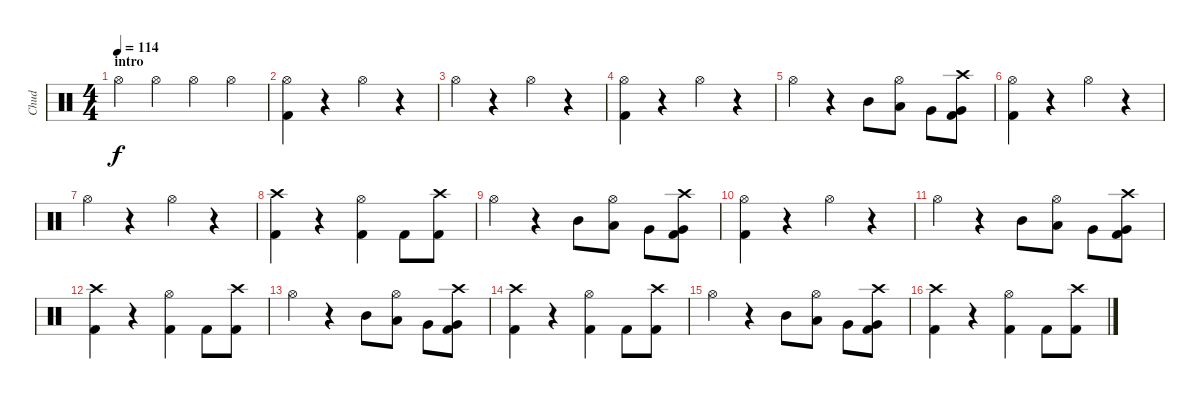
\track ("Chud" "Chud") {instrument percussion}
\staff {score}
\articulation defaults
\ts (4 4)
\section ("" "intro")
\tempo 114
\clef neutral
\ks c "Hi-Hat (open)".4{dy f} "Hi-Hat (open)".4 "Hi-Hat (open)".4 "Hi-Hat (open)".4
|
("Hi-Hat (open)" "Kick (hit) 2").4 r.4 "Hi-Hat (open)".4 r.4 |
"Hi-Hat (open)".4 r.4 "Hi-Hat (open)".4 r.4 |
("Hi-Hat (open)" "Kick (hit) 2").4 r.4 "Hi-Hat (open)".4 r.4 |
"Hi-Hat (open)".4 r.4 "Mid Tom (hit)".8 ("Hi-Hat (open)" "Low Tom (hit)").8 "Very Low Tom (hit)".8 ("Crash high (hit)" "Very Low Tom (hit)" "Kick (hit) 2").8 |
("Hi-Hat (open)" "Kick (hit) 2").4 r.4 "Hi-Hat (open)".4 r.4 |
"Hi-Hat (open)".4 r.4 "Hi-Hat (open)".4 r.4 |
("Crash high (hit)" "Kick (hit) 2").4 r.4 ("Hi-Hat (open)" "Kick (hit) 2").4 "Kick (hit) 2".8 ("Crash high (hit)" "Kick (hit) 2").8 |
"Hi-Hat (open)".4 r.4 "Mid Tom (hit)".8 ("Hi-Hat (open)" "Low Tom (hit)").8 "Very Low Tom (hit)".8 ("Crash high (hit)" "Very Low Tom (hit)" "Kick (hit) 2").8 |
("Kick (hit) 2" "Hi-Hat (open)").4 r.4 "Hi-Hat (open)".4 r.4 |
"Hi-Hat (open)".4 r.4 "Mid Tom (hit)".8 ("Hi-Hat (open)" "Low Tom (hit)").8 "Very Low Tom (hit)".8 ("Crash high (hit)" "Very Low Tom (hit)" "Kick (hit) 2").8 |
("Kick (hit) 2" "Crash high (hit)").4 r.4 ("Kick (hit) 2" "Hi-Hat (open)").4 "Kick (hit) 2".8 ("Kick (hit) 2" "Crash high (hit)").8 |
"Hi-Hat (open)".4 r.4 "Mid Tom (hit)".8 ("Hi-Hat (open)" "Low Tom (hit)").8 "Very Low Tom (hit)".8 ("Crash high (hit)" "Very Low Tom (hit)" "Kick (hit) 2").8 |
("Kick (hit) 2" "Crash high (hit)").4 r.4 ("Kick (hit) 2" "Hi-Hat (open)").4 "Kick (hit) 2".8 ("Kick (hit) 2" "Crash high (hit)").8 |
"Hi-Hat (open)".4 r.4 "Mid Tom (hit)".8 ("Hi-Hat (open)" "Low Tom (hit)").8 "Very Low Tom (hit)".8 ("Crash high (hit)" "Very Low Tom (hit)" "Kick (hit) 2").8 |
("Kick (hit) 2" "Crash high (hit)").4 r.4 ("Kick (hit) 2" "Hi-Hat (open)").4 "Kick (hit) 2".8 ("Kick (hit) 2" "Crash high (hit)").8
